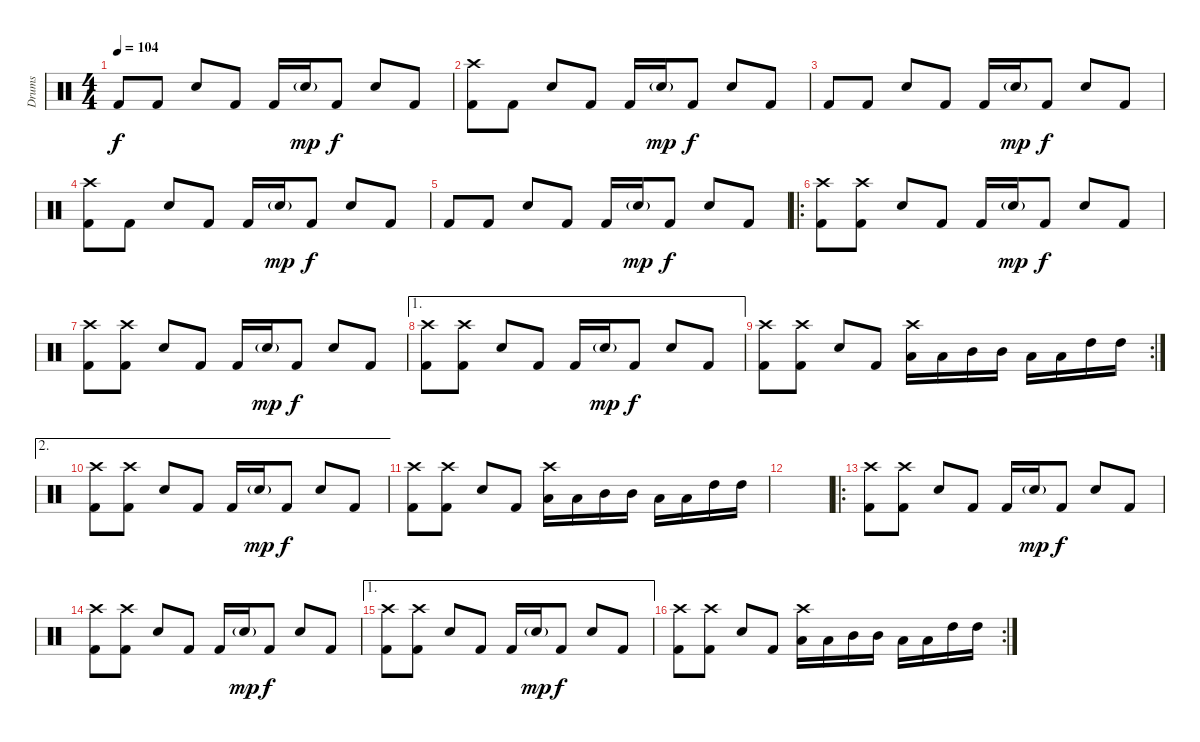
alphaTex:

\track ("Drums" "Drums") {instrument percussion}
\staff {score}
\articulation defaults
\ts (4 4)
\tempo 104
\clef neutral
\ks c "Kick (hit) 2".8{dy f} "Kick (hit) 2".8 "Snare (hit) 2".8 "Kick (hit) 2".8 "Kick (hit) 2".16 "Snare (hit) 2"{g}.16{dy mp} "Kick (hit) 2".8{dy f} "Snare (hit) 2".8 "Kick (hit) 2".8
|
("Crash high (hit)" "Kick (hit) 2").8 "Kick (hit) 2".8 "Snare (hit) 2".8 "Kick (hit) 2".8 "Kick (hit) 2".16 "Snare (hit) 2"{g}.16{dy mp} "Kick (hit) 2".8{dy f} "Snare (hit) 2".8 "Kick (hit) 2".8 |
"Kick (hit) 2".8 "Kick (hit) 2".8 "Snare (hit) 2".8 "Kick (hit) 2".8 "Kick (hit) 2".16 "Snare (hit) 2"{g}.16{dy mp} "Kick (hit) 2".8{dy f} "Snare (hit) 2".8 "Kick (hit) 2".8 |
("Crash high (hit)" "Kick (hit) 2").8 "Kick (hit) 2".8 "Snare (hit) 2".8 "Kick (hit) 2".8 "Kick (hit) 2".16 "Snare (hit) 2"{g}.16{dy mp} "Kick (hit) 2".8{dy f} "Snare (hit) 2".8 "Kick (hit) 2".8 |
"Kick (hit) 2".8 "Kick (hit) 2".8 "Snare (hit) 2".8 "Kick (hit) 2".8 "Kick (hit) 2".16 "Snare (hit) 2"{g}.16{dy mp} "Kick (hit) 2".8{dy f} "Snare (hit) 2".8 "Kick (hit) 2".8 |
\ro
("Crash high (hit)" "Kick (hit) 2").8 ("Crash high (hit)" "Kick (hit) 2").8 "Snare (hit) 2".8 "Kick (hit) 2".8 "Kick (hit) 2".16 "Snare (hit) 2"{g}.16{dy mp} "Kick (hit) 2".8{dy f} "Snare (hit) 2".8 "Kick (hit) 2".8 |
("Crash high (hit)" "Kick (hit) 2").8 ("Crash high (hit)" "Kick (hit) 2").8 "Snare (hit) 2".8 "Kick (hit) 2".8 "Kick (hit) 2".16 "Snare (hit) 2"{g}.16{dy mp} "Kick (hit) 2".8{dy f} "Snare (hit) 2".8 "Kick (hit) 2".8 |
\ae 1
("Crash high (hit)" "Kick (hit) 2").8 ("Crash high (hit)" "Kick (hit) 2").8 "Snare (hit) 2".8 "Kick (hit) 2".8 "Kick (hit) 2".16 "Snare (hit) 2"{g}.16{dy mp} "Kick (hit) 2".8{dy f} "Snare (hit) 2".8 "Kick (hit) 2".8 |
\rc 2
("Crash high (hit)" "Kick (hit) 2").8 ("Crash high (hit)" "Kick (hit) 2").8 "Snare (hit) 2".8 "Kick (hit) 2".8 ("Crash high (hit)" "Low Tom (hit)").16 "Low Tom (hit)".16 "Mid Tom (hit)".16 "Mid Tom (hit)".16 "Low Tom (hit)".16 "Low Tom (hit)".16 "High Tom (hit)".16 "High Tom (hit)".16 |
\ae 2
("Crash high (hit)" "Kick (hit) 2").8 ("Crash high (hit)" "Kick (hit) 2").8 "Snare (hit) 2".8 "Kick (hit) 2".8 "Kick (hit) 2".16 "Snare (hit) 2"{g}.16{dy mp} "Kick (hit) 2".8{dy f} "Snare (hit) 2".8 "Kick (hit) 2".8 |
("Crash high (hit)" "Kick (hit) 2").8 ("Crash high (hit)" "Kick (hit) 2").8 "Snare (hit) 2".8 "Kick (hit) 2".8 ("Crash high (hit)" "Low Tom (hit)").16 "Low Tom (hit)".16 "Mid Tom (hit)".16 "Mid Tom (hit)".16 "Low Tom (hit)".16 "Low Tom (hit)".16 "High Tom (hit)".16 "High Tom (hit)".16 |
|
\ro
("Crash high (hit)" "Kick (hit) 2").8 ("Crash high (hit)" "Kick (hit) 2").8 "Snare (hit) 2".8 "Kick (hit) 2".8 "Kick (hit) 2".16 "Snare (hit) 2"{g}.16{dy mp} "Kick (hit) 2".8{dy f} "Snare (hit) 2".8 "Kick (hit) 2".8 |
("Crash high (hit)" "Kick (hit) 2").8 ("Crash high (hit)" "Kick (hit) 2").8 "Snare (hit) 2".8 "Kick (hit) 2".8 "Kick (hit) 2".16 "Snare (hit) 2"{g}.16{dy mp} "Kick (hit) 2".8{dy f} "Snare (hit) 2".8 "Kick (hit) 2".8 |
\ae 1
("Crash high (hit)" "Kick (hit) 2").8 ("Crash high (hit)" "Kick (hit) 2").8 "Snare (hit) 2".8 "Kick (hit) 2".8 "Kick (hit) 2".16 "Snare (hit) 2"{g}.16{dy mp} "Kick (hit) 2".8{dy f} "Snare (hit) 2".8 "Kick (hit) 2".8 |
\rc 2
("Crash high (hit)" "Kick (hit) 2").8 ("Crash high (hit)" "Kick (hit) 2").8 "Snare (hit) 2".8 "Kick (hit) 2".8 ("Crash high (hit)" "Low Tom (hit)").16 "Low Tom (hit)".16 "Mid Tom (hit)".16 "Mid Tom (hit)".16 "Low Tom (hit)".16 "Low Tom (hit)".16 "High Tom (hit)".16 "High Tom (hit)".16
